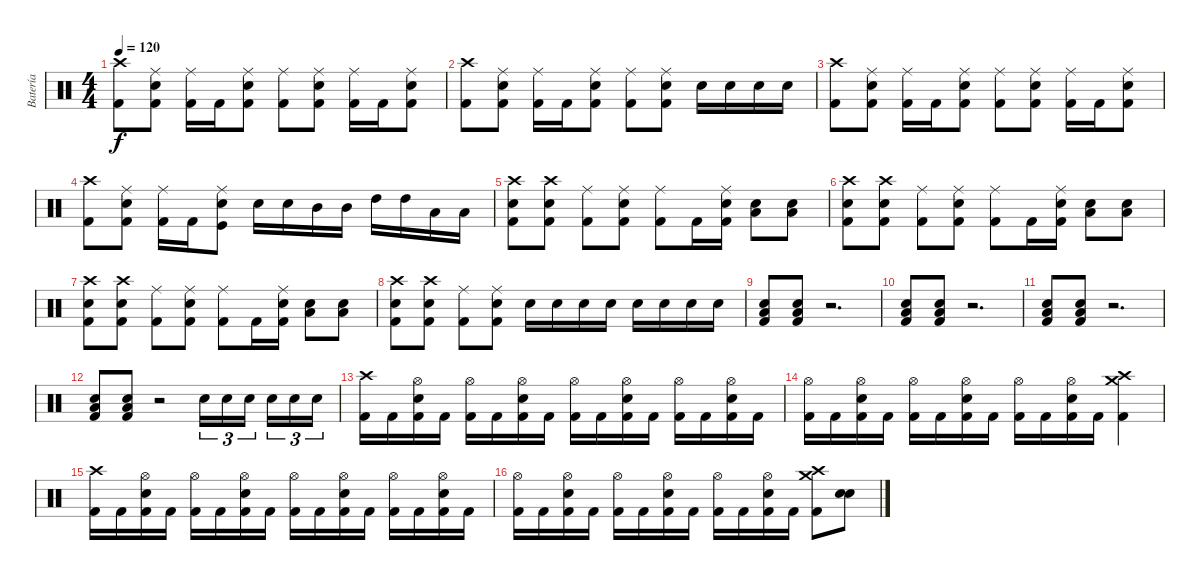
\track ("Batería" "Batería") {instrument percussion}
\staff {score}
\articulation defaults
\ts (4 4)
\tempo 120
\clef neutral
\ks c
("Crash high (hit)" "Kick (hit) 2").8{dy f} ("Ride (middle)" "Kick (hit) 2" "Snare (hit) 2").8 ("Ride (middle)" "Kick (hit) 2").16 "Kick (hit) 2".16 ("Ride (middle)" "Kick (hit) 2" "Snare (hit) 2").8 ("Ride (middle)" "Kick (hit) 2").8 ("Ride (middle)" "Kick (hit) 2" "Snare (hit) 2").8 ("Ride (middle)" "Kick (hit) 2").16 "Kick (hit) 2".16 ("Ride (middle)" "Kick (hit) 2" "Snare (hit) 2").8 |
("Crash high (hit)" "Kick (hit) 2").8 ("Ride (middle)" "Kick (hit) 2" "Snare (hit) 2").8 ("Ride (middle)" "Kick (hit) 2").16 "Kick (hit) 2".16 ("Ride (middle)" "Kick (hit) 2" "Snare (hit) 2").8 ("Ride (middle)" "Kick (hit) 2").8 ("Ride (middle)" "Kick (hit) 2" "Snare (hit) 2").8 "Snare (hit) 2".16 "Snare (hit) 2".16 "Snare (hit) 2".16 "Snare (hit) 2".16 |
("Crash high (hit)" "Kick (hit) 2").8 ("Ride (middle)" "Kick (hit) 2" "Snare (hit) 2").8 ("Ride (middle)" "Kick (hit) 2").16 "Kick (hit) 2".16 ("Ride (middle)" "Kick (hit) 2" "Snare (hit) 2").8 ("Ride (middle)" "Kick (hit) 2").8 ("Ride (middle)" "Kick (hit) 2" "Snare (hit) 2").8 ("Ride (middle)" "Kick (hit) 2").16 "Kick (hit) 2".16 ("Ride (middle)" "Kick (hit) 2" "Snare (hit) 2").8 |
("Crash high (hit)" "Kick (hit) 2").8 ("Ride (middle)" "Kick (hit) 2" "Snare (hit) 2").8 ("Ride (middle)" "Kick (hit) 2").16 "Kick (hit) 2".16 ("Ride (middle)" "Kick (hit)" "Snare (hit) 2").8 "Snare (hit) 2".16 "Snare (hit) 2".16 "Mid Tom (hit)".16 "Mid Tom (hit)".16 "High Tom (hit)".16 "High Tom (hit)".16 "Low Tom (hit)".16 "Low Tom (hit)".16 |
("Crash high (hit)" "Kick (hit) 2" "Snare (hit) 2").8 ("Crash high (hit)" "Kick (hit) 2" "Snare (hit) 2").8 ("Ride (middle)" "Kick (hit) 2").8 ("Ride (middle)" "Kick (hit) 2" "Snare (hit) 2").8 ("Ride (middle)" "Kick (hit) 2").8 "Kick (hit) 2".16 ("Ride (middle)" "Kick (hit) 2" "Snare (hit) 2").16 ("Low Tom (hit)" "Snare (hit) 2").8 ("Low Tom (hit)" "Snare (hit) 2").8 |
("Crash high (hit)" "Kick (hit) 2" "Snare (hit) 2").8 ("Crash high (hit)" "Kick (hit) 2" "Snare (hit) 2").8 ("Ride (middle)" "Kick (hit) 2").8 ("Ride (middle)" "Kick (hit) 2" "Snare (hit) 2").8 ("Ride (middle)" "Kick (hit) 2").8 "Kick (hit) 2".16 ("Ride (middle)" "Kick (hit) 2" "Snare (hit) 2").16 ("Low Tom (hit)" "Snare (hit) 2").8 ("Low Tom (hit)" "Snare (hit) 2").8 |
("Crash high (hit)" "Kick (hit) 2" "Snare (hit) 2").8 ("Crash high (hit)" "Kick (hit) 2" "Snare (hit) 2").8 ("Ride (middle)" "Kick (hit) 2").8 ("Ride (middle)" "Kick (hit) 2" "Snare (hit) 2").8 ("Ride (middle)" "Kick (hit) 2").8 "Kick (hit) 2".16 ("Ride (middle)" "Kick (hit) 2" "Snare (hit) 2").16 ("Low Tom (hit)" "Snare (hit) 2").8 ("Low Tom (hit)" "Snare (hit) 2").8 |
("Crash high (hit)" "Kick (hit) 2" "Snare (hit) 2").8 ("Crash high (hit)" "Kick (hit) 2" "Snare (hit) 2").8 ("Ride (middle)" "Kick (hit) 2").8 ("Ride (middle)" "Kick (hit) 2" "Snare (hit) 2").8 "Snare (hit) 2".16 "Snare (hit) 2".16 "Snare (hit) 2".16 "Snare (hit) 2".16 "Snare (hit) 2".16 "Snare (hit) 2".16 "Snare (hit) 2".16 "Snare (hit) 2".16 |
("Low Tom (hit)" "Kick (hit) 2" "Snare (hit) 2").8 ("Low Tom (hit)" "Kick (hit) 2" "Snare (hit) 2").8 r.2{d} |
("Low Tom (hit)" "Kick (hit) 2" "Snare (hit) 2").8 ("Low Tom (hit)" "Kick (hit) 2" "Snare (hit) 2").8 r.2{d} |
("Low Tom (hit)" "Kick (hit) 2" "Snare (hit) 2").8 ("Low Tom (hit)" "Kick (hit) 2" "Snare (hit) 2").8 r.2{d} |
("Low Tom (hit)" "Kick (hit) 2" "Snare (hit) 2").8 ("Low Tom (hit)" "Kick (hit) 2" "Snare (hit) 2").8 r.2 "Snare (hit) 2".16{tu (3 2)} "Snare (hit) 2".16{tu (3 2)} "Snare (hit) 2".16{tu (3 2)} "Snare (hit) 2".16{tu (3 2)} "Snare (hit) 2".16{tu (3 2)} "Snare (hit) 2".16{tu (3 2)} |
("Kick (hit) 2" "Crash high (hit)").16 "Kick (hit) 2".16 ("Kick (hit) 2" "Hi-Hat (open)" "Snare (hit) 2").16 "Kick (hit) 2".16 ("Kick (hit) 2" "Hi-Hat (open)").16 "Kick (hit) 2".16 ("Kick (hit) 2" "Hi-Hat (open)" "Snare (hit) 2").16 "Kick (hit) 2".16 ("Kick (hit) 2" "Hi-Hat (open)").16 "Kick (hit) 2".16 ("Kick (hit) 2" "Hi-Hat (open)" "Snare (hit) 2").16 "Kick (hit) 2".16 ("Kick (hit) 2" "Hi-Hat (open)").16 "Kick (hit) 2".16 ("Kick (hit) 2" "Hi-Hat (open)" "Snare (hit) 2").16 "Kick (hit) 2".16 |
("Kick (hit) 2" "Hi-Hat (open)").16 "Kick (hit) 2".16 ("Kick (hit) 2" "Hi-Hat (open)" "Snare (hit) 2").16 "Kick (hit) 2".16 ("Kick (hit) 2" "Hi-Hat (open)").16 "Kick (hit) 2".16 ("Kick (hit) 2" "Hi-Hat (open)" "Snare (hit) 2").16 "Kick (hit) 2".16 ("Kick (hit) 2" "Hi-Hat (open)").16 "Kick (hit) 2".16 ("Kick (hit) 2" "Hi-Hat (open)" "Snare (hit) 2").16 "Kick (hit) 2".16 ("Crash high (hit)" "Crash medium (hit)" "Kick (hit) 2").4 |
("Kick (hit) 2" "Crash high (hit)").16 "Kick (hit) 2".16 ("Kick (hit) 2" "Hi-Hat (open)" "Snare (hit) 2").16 "Kick (hit) 2".16 ("Kick (hit) 2" "Hi-Hat (open)").16 "Kick (hit) 2".16 ("Kick (hit) 2" "Hi-Hat (open)" "Snare (hit) 2").16 "Kick (hit) 2".16 ("Kick (hit) 2" "Hi-Hat (open)").16 "Kick (hit) 2".16 ("Kick (hit) 2" "Hi-Hat (open)" "Snare (hit) 2").16 "Kick (hit) 2".16 ("Kick (hit) 2" "Hi-Hat (open)").16 "Kick (hit) 2".16 ("Kick (hit) 2" "Hi-Hat (open)" "Snare (hit) 2").16 "Kick (hit) 2".16 |
("Kick (hit) 2" "Hi-Hat (open)").16 "Kick (hit) 2".16 ("Kick (hit) 2" "Hi-Hat (open)" "Snare (hit) 2").16 "Kick (hit) 2".16 ("Kick (hit) 2" "Hi-Hat (open)").16 "Kick (hit) 2".16 ("Kick (hit) 2" "Hi-Hat (open)" "Snare (hit) 2").16 "Kick (hit) 2".16 ("Kick (hit) 2" "Hi-Hat (open)").16 "Kick (hit) 2".16 ("Kick (hit) 2" "Hi-Hat (open)" "Snare (hit) 2").16 "Kick (hit) 2".16 ("Crash high (hit)" "Crash medium (hit)" "Kick (hit) 2").8 ("Snare (hit) 2" "Snare (hit) 2").8
